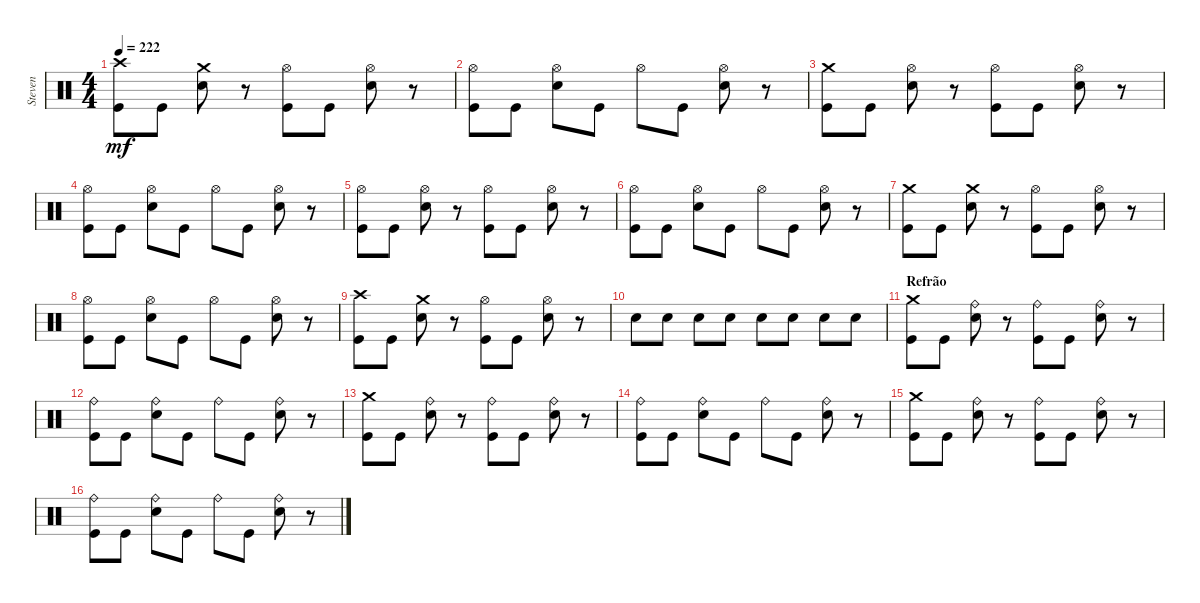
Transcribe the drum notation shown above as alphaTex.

\track ("Steven" "Steven") {instrument percussion}
\staff {score}
\articulation defaults
\ts (4 4)
\tempo 222
\clef neutral
\ks c
("Kick (hit)" "Crash high (hit)").8{dy mf} "Kick (hit)".8 ("Snare (hit) 2" "Crash medium (hit)").8 r.8 ("Kick (hit)" "Hi-Hat (open)").8 "Kick (hit)".8 ("Snare (hit) 2" "Hi-Hat (open)").8 r.8 |
("Kick (hit)" "Hi-Hat (open)").8 "Kick (hit)".8 ("Snare (hit) 2" "Hi-Hat (open)").8 "Kick (hit)".8 "Hi-Hat (open)".8 "Kick (hit)".8 ("Snare (hit) 2" "Hi-Hat (open)").8 r.8 |
("Kick (hit)" "Crash medium (hit)").8 "Kick (hit)".8 ("Snare (hit) 2" "Hi-Hat (open)").8 r.8 ("Kick (hit)" "Hi-Hat (open)").8 "Kick (hit)".8 ("Snare (hit) 2" "Hi-Hat (open)").8 r.8 |
("Kick (hit)" "Hi-Hat (open)").8 "Kick (hit)".8 ("Snare (hit) 2" "Hi-Hat (open)").8 "Kick (hit)".8 "Hi-Hat (open)".8 "Kick (hit)".8 ("Snare (hit) 2" "Hi-Hat (open)").8 r.8 |
("Kick (hit)" "Hi-Hat (open)").8 "Kick (hit)".8 ("Snare (hit) 2" "Hi-Hat (open)").8 r.8 ("Kick (hit)" "Hi-Hat (open)").8 "Kick (hit)".8 ("Snare (hit) 2" "Hi-Hat (open)").8 r.8 |
("Kick (hit)" "Hi-Hat (open)").8 "Kick (hit)".8 ("Snare (hit) 2" "Hi-Hat (open)").8 "Kick (hit)".8 "Hi-Hat (open)".8 "Kick (hit)".8 ("Snare (hit) 2" "Hi-Hat (open)").8 r.8 |
("Kick (hit)" "Crash medium (hit)").8 "Kick (hit)".8 ("Snare (hit) 2" "Crash medium (hit)").8 r.8 ("Kick (hit)" "Hi-Hat (open)").8 "Kick (hit)".8 ("Snare (hit) 2" "Hi-Hat (open)").8 r.8 |
("Kick (hit)" "Hi-Hat (open)").8 "Kick (hit)".8 ("Snare (hit) 2" "Hi-Hat (open)").8 "Kick (hit)".8 "Hi-Hat (open)".8 "Kick (hit)".8 ("Snare (hit) 2" "Hi-Hat (open)").8 r.8 |
("Kick (hit)" "Crash high (hit)").8 "Kick (hit)".8 ("Snare (hit) 2" "Crash medium (hit)").8 r.8 ("Kick (hit)" "Hi-Hat (open)").8 "Kick (hit)".8 ("Snare (hit) 2" "Hi-Hat (open)").8 r.8 |
"Snare (hit) 2".8 "Snare (hit) 2".8 "Snare (hit) 2".8 "Snare (hit) 2".8 "Snare (hit) 2".8 "Snare (hit) 2".8 "Snare (hit) 2".8 "Snare (hit) 2".8 |
\section ("" "Refrão")
("Kick (hit)" "Crash medium (hit)").8 "Kick (hit)".8 ("Snare (hit) 2" "Ride (bell)").8 r.8 ("Kick (hit)" "Ride (bell)").8 "Kick (hit)".8 ("Snare (hit) 2" "Ride (bell)").8 r.8 |
("Kick (hit)" "Ride (bell)").8 "Kick (hit)".8 ("Snare (hit) 2" "Ride (bell)").8 "Kick (hit)".8 "Ride (bell)".8 "Kick (hit)".8 ("Snare (hit) 2" "Ride (bell)").8 r.8 |
("Kick (hit)" "Crash medium (hit)").8 "Kick (hit)".8 ("Snare (hit) 2" "Ride (bell)").8 r.8 ("Kick (hit)" "Ride (bell)").8 "Kick (hit)".8 ("Snare (hit) 2" "Ride (bell)").8 r.8 |
("Kick (hit)" "Ride (bell)").8 "Kick (hit)".8 ("Snare (hit) 2" "Ride (bell)").8 "Kick (hit)".8 "Ride (bell)".8 "Kick (hit)".8 ("Snare (hit) 2" "Ride (bell)").8 r.8 |
("Kick (hit)" "Crash medium (hit)").8 "Kick (hit)".8 ("Snare (hit) 2" "Ride (bell)").8 r.8 ("Kick (hit)" "Ride (bell)").8 "Kick (hit)".8 ("Snare (hit) 2" "Ride (bell)").8 r.8 |
("Kick (hit)" "Ride (bell)").8 "Kick (hit)".8 ("Snare (hit) 2" "Ride (bell)").8 "Kick (hit)".8 "Ride (bell)".8 "Kick (hit)".8 ("Snare (hit) 2" "Ride (bell)").8 r.8
